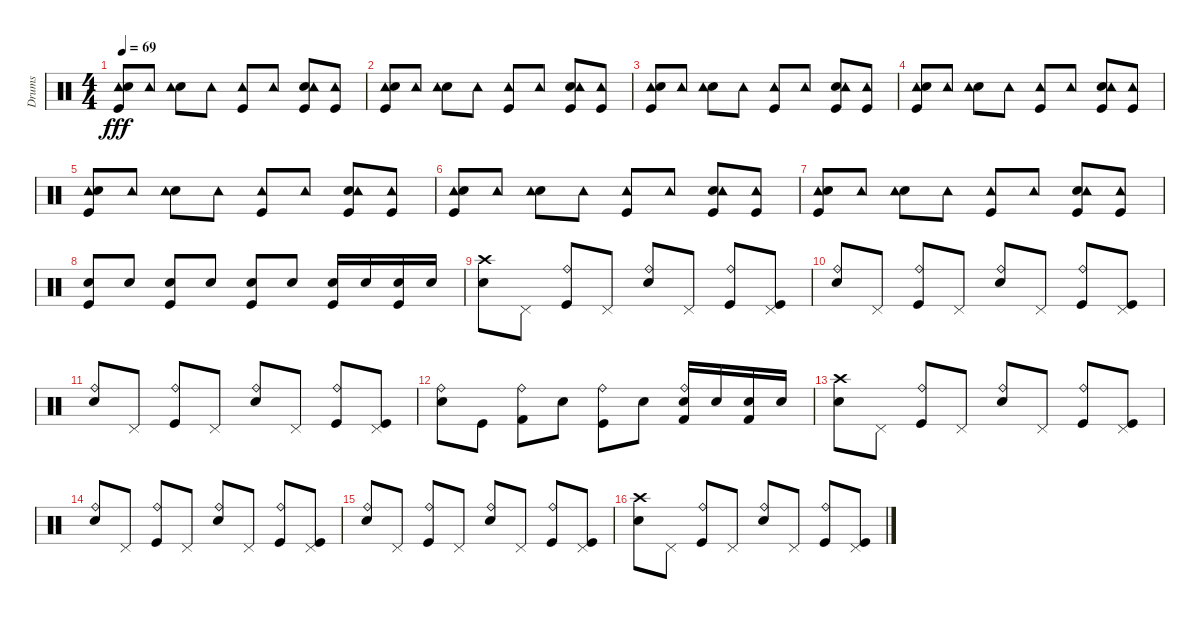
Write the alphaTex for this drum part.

\track ("Drums" "Drums") {instrument percussion}
\staff {score}
\articulation defaults
\ts (4 4)
\tempo 69
\clef neutral
\ks c
("Tambourine (hit)" "Snare (hit) 2" "Kick (hit)").8{dy fff} "Tambourine (hit)".8 ("Snare (hit) 2" "Tambourine (hit)").8 "Tambourine (hit)".8 ("Tambourine (hit)" "Kick (hit)").8 "Tambourine (hit)".8 ("Snare (hit) 2" "Tambourine (hit)" "Kick (hit)").8 ("Tambourine (hit)" "Kick (hit)").8 |
("Tambourine (hit)" "Snare (hit) 2" "Kick (hit)").8 "Tambourine (hit)".8 ("Snare (hit) 2" "Tambourine (hit)").8 "Tambourine (hit)".8 ("Tambourine (hit)" "Kick (hit)").8 "Tambourine (hit)".8 ("Snare (hit) 2" "Tambourine (hit)" "Kick (hit)").8 ("Tambourine (hit)" "Kick (hit)").8 |
("Tambourine (hit)" "Snare (hit) 2" "Kick (hit)").8 "Tambourine (hit)".8 ("Snare (hit) 2" "Tambourine (hit)").8 "Tambourine (hit)".8 ("Tambourine (hit)" "Kick (hit)").8 "Tambourine (hit)".8 ("Snare (hit) 2" "Tambourine (hit)" "Kick (hit)").8 ("Tambourine (hit)" "Kick (hit)").8 |
("Tambourine (hit)" "Snare (hit) 2" "Kick (hit)").8 "Tambourine (hit)".8 ("Snare (hit) 2" "Tambourine (hit)").8 "Tambourine (hit)".8 ("Tambourine (hit)" "Kick (hit)").8 "Tambourine (hit)".8 ("Snare (hit) 2" "Tambourine (hit)" "Kick (hit)").8 ("Tambourine (hit)" "Kick (hit)").8 |
("Tambourine (hit)" "Snare (hit) 2" "Kick (hit)").8 "Tambourine (hit)".8 ("Snare (hit) 2" "Tambourine (hit)").8 "Tambourine (hit)".8 ("Tambourine (hit)" "Kick (hit)").8 "Tambourine (hit)".8 ("Snare (hit) 2" "Tambourine (hit)" "Kick (hit)").8 ("Tambourine (hit)" "Kick (hit)").8 |
("Tambourine (hit)" "Snare (hit) 2" "Kick (hit)").8 "Tambourine (hit)".8 ("Snare (hit) 2" "Tambourine (hit)").8 "Tambourine (hit)".8 ("Tambourine (hit)" "Kick (hit)").8 "Tambourine (hit)".8 ("Snare (hit) 2" "Tambourine (hit)" "Kick (hit)").8 ("Tambourine (hit)" "Kick (hit)").8 |
("Tambourine (hit)" "Snare (hit) 2" "Kick (hit)").8 "Tambourine (hit)".8 ("Snare (hit) 2" "Tambourine (hit)").8 "Tambourine (hit)".8 ("Tambourine (hit)" "Kick (hit)").8 "Tambourine (hit)".8 ("Snare (hit) 2" "Tambourine (hit)" "Kick (hit)").8 ("Tambourine (hit)" "Kick (hit)").8 |
("Snare (hit) 2" "Kick (hit)").8 "Snare (hit) 2".8 ("Snare (hit) 2" "Kick (hit)").8 "Snare (hit) 2".8 ("Kick (hit)" "Electric Snare (hit)").8 "Electric Snare (hit)".8 ("Kick (hit)" "Electric Snare (hit)").16 "Snare (hit) 2".16 ("Kick (hit)" "Snare (hit) 2").16 "Snare (hit) 2".16 |
("Snare (hit) 2" "Crash high (hit)").8 "Pedal Hi-Hat (hit)".8 ("Kick (hit)" "Ride (bell)").8 "Pedal Hi-Hat (hit)".8 ("Ride (bell)" "Snare (hit) 2").8 "Pedal Hi-Hat (hit)".8 ("Kick (hit)" "Ride (bell)").8 ("Pedal Hi-Hat (hit)" "Kick (hit)").8 |
("Ride (bell)" "Snare (hit) 2").8 "Pedal Hi-Hat (hit)".8 ("Kick (hit)" "Ride (bell)").8 "Pedal Hi-Hat (hit)".8 ("Ride (bell)" "Snare (hit) 2").8 "Pedal Hi-Hat (hit)".8 ("Kick (hit)" "Ride (bell)").8 ("Pedal Hi-Hat (hit)" "Kick (hit)").8 |
("Ride (bell)" "Snare (hit) 2").8 "Pedal Hi-Hat (hit)".8 ("Kick (hit)" "Ride (bell)").8 "Pedal Hi-Hat (hit)".8 ("Ride (bell)" "Snare (hit) 2").8 "Pedal Hi-Hat (hit)".8 ("Kick (hit)" "Ride (bell)").8 ("Pedal Hi-Hat (hit)" "Kick (hit)").8 |
("Snare (hit) 2" "Ride (bell)").8 "Kick (hit)".8 ("Ride (bell)" "Kick (hit) 2").8 "Electric Snare (hit)".8 ("Kick (hit)" "Ride (bell)").8 "Electric Snare (hit)".8 ("Ride (bell)" "Kick (hit) 2" "Snare (hit) 2").16 "Snare (hit) 2".16 ("Electric Snare (hit)" "Kick (hit) 2").16 "Snare (hit) 2".16 |
("Snare (hit) 2" "Crash high (hit)").8 "Pedal Hi-Hat (hit)".8 ("Kick (hit)" "Ride (bell)").8 "Pedal Hi-Hat (hit)".8 ("Ride (bell)" "Snare (hit) 2").8 "Pedal Hi-Hat (hit)".8 ("Kick (hit)" "Ride (bell)").8 ("Pedal Hi-Hat (hit)" "Kick (hit)").8 |
("Ride (bell)" "Snare (hit) 2").8 "Pedal Hi-Hat (hit)".8 ("Kick (hit)" "Ride (bell)").8 "Pedal Hi-Hat (hit)".8 ("Ride (bell)" "Snare (hit) 2").8 "Pedal Hi-Hat (hit)".8 ("Kick (hit)" "Ride (bell)").8 ("Pedal Hi-Hat (hit)" "Kick (hit)").8 |
("Ride (bell)" "Snare (hit) 2").8 "Pedal Hi-Hat (hit)".8 ("Kick (hit)" "Ride (bell)").8 "Pedal Hi-Hat (hit)".8 ("Ride (bell)" "Snare (hit) 2").8 "Pedal Hi-Hat (hit)".8 ("Kick (hit)" "Ride (bell)").8 ("Pedal Hi-Hat (hit)" "Kick (hit)").8 |
("Snare (hit) 2" "Crash high (hit)").8 "Pedal Hi-Hat (hit)".8 ("Kick (hit)" "Ride (bell)").8 "Pedal Hi-Hat (hit)".8 ("Ride (bell)" "Snare (hit) 2").8 "Pedal Hi-Hat (hit)".8 ("Kick (hit)" "Ride (bell)").8 ("Pedal Hi-Hat (hit)" "Kick (hit)").8
